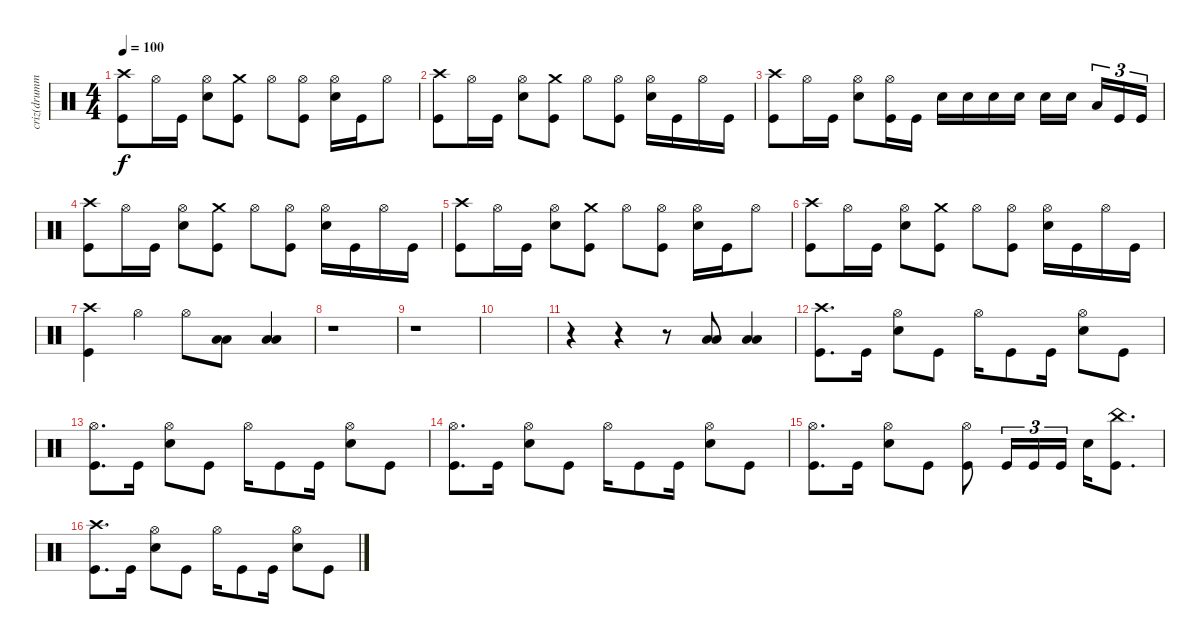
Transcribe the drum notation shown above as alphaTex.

\track ("criz(drummer)" "criz(drumm") {instrument percussion}
\staff {score}
\articulation defaults
\ts (4 4)
\tempo 100
\clef neutral
\ks c
("Crash high (hit)" "Kick (hit)").8{dy f} "Hi-Hat (open)".16 "Kick (hit)".16 ("Hi-Hat (open)" "Electric Snare (hit)").8 ("Crash medium (hit)" "Kick (hit)").8 "Hi-Hat (open)".8 ("Hi-Hat (open)" "Kick (hit)").8 ("Hi-Hat (open)" "Electric Snare (hit)").16 "Kick (hit)".16 "Hi-Hat (open)".8 |
("Crash high (hit)" "Kick (hit)").8 "Hi-Hat (open)".16 "Kick (hit)".16 ("Hi-Hat (open)" "Electric Snare (hit)").8 ("Crash medium (hit)" "Kick (hit)").8 "Hi-Hat (open)".8 ("Hi-Hat (open)" "Kick (hit)").8 ("Hi-Hat (open)" "Electric Snare (hit)").16 "Kick (hit)".16 "Hi-Hat (open)".16 "Kick (hit)".16 |
("Crash high (hit)" "Kick (hit)").8 "Hi-Hat (open)".16 "Kick (hit)".16 ("Hi-Hat (open)" "Electric Snare (hit)").8 ("Hi-Hat (open)" "Kick (hit)").16 "Kick (hit)".16 "Electric Snare (hit)".16 "Electric Snare (hit)".16 "Electric Snare (hit)".16 "Electric Snare (hit)".16 "Electric Snare (hit)".16 "Electric Snare (hit)".16{beam splitsecondary} "Low Floor Tom (hit)".16{tu (3 2)} "Kick (hit)".16{tu (3 2)} "Kick (hit)".16{tu (3 2)} |
("Crash high (hit)" "Kick (hit)").8 "Hi-Hat (open)".16 "Kick (hit)".16 ("Hi-Hat (open)" "Electric Snare (hit)").8 ("Crash medium (hit)" "Kick (hit)").8 "Hi-Hat (open)".8 ("Hi-Hat (open)" "Kick (hit)").8 ("Hi-Hat (open)" "Electric Snare (hit)").16 "Kick (hit)".16 "Hi-Hat (open)".16 "Kick (hit)".16 |
("Crash high (hit)" "Kick (hit)").8 "Hi-Hat (open)".16 "Kick (hit)".16 ("Hi-Hat (open)" "Electric Snare (hit)").8 ("Crash medium (hit)" "Kick (hit)").8 "Hi-Hat (open)".8 ("Hi-Hat (open)" "Kick (hit)").8 ("Hi-Hat (open)" "Electric Snare (hit)").16 "Kick (hit)".16 "Hi-Hat (open)".8 |
("Crash high (hit)" "Kick (hit)").8 "Hi-Hat (open)".16 "Kick (hit)".16 ("Hi-Hat (open)" "Electric Snare (hit)").8 ("Crash medium (hit)" "Kick (hit)").8 "Hi-Hat (open)".8 ("Hi-Hat (open)" "Kick (hit)").8 ("Hi-Hat (open)" "Electric Snare (hit)").16 "Kick (hit)".16 "Hi-Hat (open)".16 "Kick (hit)".16 |
("Crash high (hit)" "Kick (hit)").4 "Hi-Hat (open)".4 "Hi-Hat (open)".8 ("Low Tom (hit)" "Low Floor Tom (hit)").8 ("Low Tom (hit)" "Low Floor Tom (hit)").4 |
r.1 |
r.1 |
|
r.4 r.4 r.8 ("Low Tom (hit)" "Low Floor Tom (hit)").8 ("Low Tom (hit)" "Low Floor Tom (hit)").4 |
("Crash high (hit)" "Kick (hit)").8{d} "Kick (hit)".16 ("Hi-Hat (open)" "Electric Snare (hit)").8 "Kick (hit)".8 "Hi-Hat (open)".16 "Kick (hit)".8 "Kick (hit)".16 ("Hi-Hat (open)" "Electric Snare (hit)").8 "Kick (hit)".8 |
("Hi-Hat (open)" "Kick (hit)").8{d} "Kick (hit)".16 ("Hi-Hat (open)" "Electric Snare (hit)").8 "Kick (hit)".8 "Hi-Hat (open)".16 "Kick (hit)".8 "Kick (hit)".16 ("Hi-Hat (open)" "Electric Snare (hit)").8 "Kick (hit)".8 |
("Hi-Hat (open)" "Kick (hit)").8{d} "Kick (hit)".16 ("Hi-Hat (open)" "Electric Snare (hit)").8 "Kick (hit)".8 "Hi-Hat (open)".16 "Kick (hit)".8 "Kick (hit)".16 ("Hi-Hat (open)" "Electric Snare (hit)").8 "Kick (hit)".8 |
("Hi-Hat (open)" "Kick (hit)").8{d} "Kick (hit)".16 ("Hi-Hat (open)" "Electric Snare (hit)").8 "Kick (hit)".8 ("Hi-Hat (open)" "Kick (hit)").8 "Kick (hit)".16{tu (3 2)} "Kick (hit)".16{tu (3 2)} "Kick (hit)".16{tu (3 2)} "Electric Snare (hit)".16 ("China (hit)" "Kick (hit)").8{d} |
("Crash high (hit)" "Kick (hit)").8{d} "Kick (hit)".16 ("Hi-Hat (open)" "Electric Snare (hit)").8 "Kick (hit)".8 "Hi-Hat (open)".16 "Kick (hit)".8 "Kick (hit)".16 ("Hi-Hat (open)" "Electric Snare (hit)").8 "Kick (hit)".8
